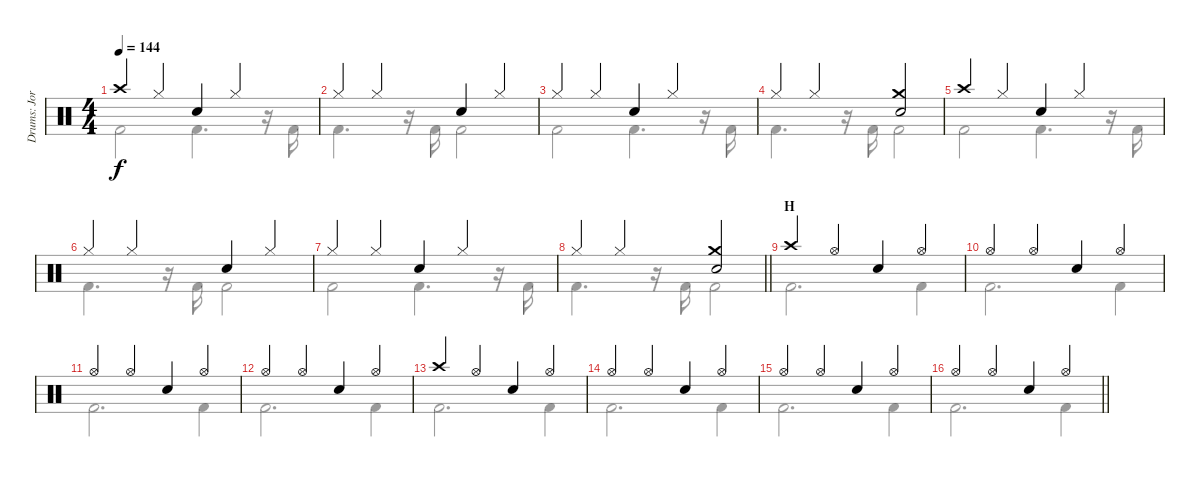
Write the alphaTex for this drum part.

\track ("Drums: Jorg" "Drums: Jor") {instrument percussion}
\staff {score}
\articulation defaults
\voice
\ts (4 4)
\tempo 144
\clef neutral
\ks c "Crash high (hit)".4{dy f} "Hi-Hat (closed)".4 "Snare (hit) 2".4 "Hi-Hat (closed)".4
|
"Hi-Hat (closed)".4 "Hi-Hat (closed)".4 "Snare (hit) 2".4 "Hi-Hat (closed)".4 |
"Hi-Hat (closed)".4 "Hi-Hat (closed)".4 "Snare (hit) 2".4 "Hi-Hat (closed)".4 |
"Hi-Hat (closed)".4 "Hi-Hat (closed)".4 ("Crash medium (hit)" "Snare (hit) 2").2 |
"Crash high (hit)".4 "Hi-Hat (closed)".4 "Snare (hit) 2".4 "Hi-Hat (closed)".4 |
"Hi-Hat (closed)".4 "Hi-Hat (closed)".4 "Snare (hit) 2".4 "Hi-Hat (closed)".4 |
"Hi-Hat (closed)".4 "Hi-Hat (closed)".4 "Snare (hit) 2".4 "Hi-Hat (closed)".4 |
\barLineRight lightlight "Hi-Hat (closed)".4 "Hi-Hat (closed)".4
("Crash medium (hit)" "Snare (hit) 2").2 |
\section ("" "H")
"Crash high (hit)".4 "Hi-Hat (open)".4 "Snare (hit) 2".4 "Hi-Hat (open)".4 |
"Hi-Hat (open)".4 "Hi-Hat (open)".4 "Snare (hit) 2".4 "Hi-Hat (open)".4 |
"Hi-Hat (open)".4 "Hi-Hat (open)".4 "Snare (hit) 2".4 "Hi-Hat (open)".4 |
"Hi-Hat (open)".4 "Hi-Hat (open)".4 "Snare (hit) 2".4 "Hi-Hat (open)".4 |
"Crash high (hit)".4 "Hi-Hat (open)".4 "Snare (hit) 2".4 "Hi-Hat (open)".4 |
"Hi-Hat (open)".4 "Hi-Hat (open)".4 "Snare (hit) 2".4 "Hi-Hat (open)".4 |
"Hi-Hat (open)".4 "Hi-Hat (open)".4 "Snare (hit) 2".4 "Hi-Hat (open)".4 |
\barLineRight lightlight "Hi-Hat (open)".4 "Hi-Hat (open)".4 "Snare (hit) 2".4 "Hi-Hat (open)".4
\voice
\clef neutral
\ottava regular
\simile none
\ks c "Kick (hit) 2".2{dy f} "Kick (hit) 2".4{d}
r.16 "Kick (hit) 2".16 |
"Kick (hit) 2".4{d} r.16 "Kick (hit) 2".16 "Kick (hit) 2".2 |
"Kick (hit) 2".2 "Kick (hit) 2".4{d} r.16 "Kick (hit) 2".16 |
"Kick (hit) 2".4{d} r.16 "Kick (hit) 2".16 "Kick (hit) 2".2 |
"Kick (hit) 2".2 "Kick (hit) 2".4{d} r.16 "Kick (hit) 2".16 |
"Kick (hit) 2".4{d} r.16 "Kick (hit) 2".16 "Kick (hit) 2".2 |
"Kick (hit) 2".2 "Kick (hit) 2".4{d} r.16 "Kick (hit) 2".16 |
\barLineRight lightlight "Kick (hit) 2".4{d}
r.16 "Kick (hit) 2".16 "Kick (hit) 2".2 |
"Kick (hit) 2".2{d} "Kick (hit) 2".4 |
"Kick (hit) 2".2{d} "Kick (hit) 2".4 |
"Kick (hit) 2".2{d} "Kick (hit) 2".4 |
"Kick (hit) 2".2{d} "Kick (hit) 2".4 |
"Kick (hit) 2".2{d} "Kick (hit) 2".4 |
"Kick (hit) 2".2{d} "Kick (hit) 2".4 |
"Kick (hit) 2".2{d} "Kick (hit) 2".4 |
\barLineRight lightlight "Kick (hit) 2".2{d} "Kick (hit) 2".4
